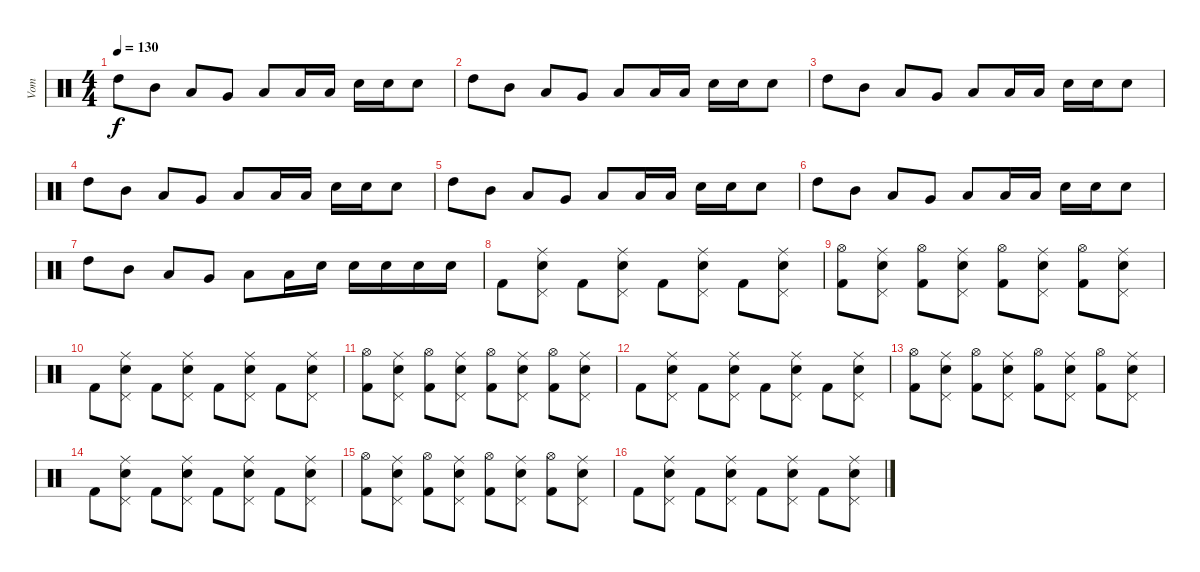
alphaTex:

\track ("Vom" "Vom") {instrument percussion}
\staff {score}
\articulation defaults
\ts (4 4)
\tempo 130
\clef neutral
\ks c "High Tom (hit)".8{dy f} "Mid Tom (hit)".8 "Low Tom (hit)".8 "Very Low Tom (hit)".8 "Low Floor Tom (hit)".8 "Low Floor Tom (hit)".16 "Low Floor Tom (hit)".16 "Snare (hit) 2".16 "Snare (hit) 2".16 "Snare (hit) 2".8
|
"High Tom (hit)".8 "Mid Tom (hit)".8 "Low Tom (hit)".8 "Very Low Tom (hit)".8 "Low Floor Tom (hit)".8 "Low Floor Tom (hit)".16 "Low Floor Tom (hit)".16 "Snare (hit) 2".16 "Snare (hit) 2".16 "Snare (hit) 2".8 |
"High Tom (hit)".8 "Mid Tom (hit)".8 "Low Tom (hit)".8 "Very Low Tom (hit)".8 "Low Floor Tom (hit)".8 "Low Floor Tom (hit)".16 "Low Floor Tom (hit)".16 "Snare (hit) 2".16 "Snare (hit) 2".16 "Snare (hit) 2".8 |
"High Tom (hit)".8 "Mid Tom (hit)".8 "Low Tom (hit)".8 "Very Low Tom (hit)".8 "Low Floor Tom (hit)".8 "Low Floor Tom (hit)".16 "Low Floor Tom (hit)".16 "Snare (hit) 2".16 "Snare (hit) 2".16 "Snare (hit) 2".8 |
"High Tom (hit)".8 "Mid Tom (hit)".8 "Low Tom (hit)".8 "Very Low Tom (hit)".8 "Low Floor Tom (hit)".8 "Low Floor Tom (hit)".16 "Low Floor Tom (hit)".16 "Snare (hit) 2".16 "Snare (hit) 2".16 "Snare (hit) 2".8 |
"High Tom (hit)".8 "Mid Tom (hit)".8 "Low Tom (hit)".8 "Very Low Tom (hit)".8 "Low Floor Tom (hit)".8 "Low Floor Tom (hit)".16 "Low Floor Tom (hit)".16 "Snare (hit) 2".16 "Snare (hit) 2".16 "Snare (hit) 2".8 |
"High Tom (hit)".8 "Mid Tom (hit)".8 "Low Tom (hit)".8 "Very Low Tom (hit)".8 "Low Floor Tom (hit)".8 "Low Floor Tom (hit)".16 "Snare (hit) 2".16 "Snare (hit) 2".16 "Snare (hit) 2".16 "Snare (hit) 2".16 "Snare (hit) 2".16 |
"Kick (hit) 2".8 ("Snare (hit) 2" "Pedal Hi-Hat (hit)" "Ride (middle)").8 "Kick (hit) 2".8 ("Snare (hit) 2" "Pedal Hi-Hat (hit)" "Ride (middle)").8 "Kick (hit) 2".8 ("Snare (hit) 2" "Pedal Hi-Hat (hit)" "Ride (middle)").8 "Kick (hit) 2".8 ("Snare (hit) 2" "Pedal Hi-Hat (hit)" "Ride (middle)").8 |
("Kick (hit) 2" "Hi-Hat (open)").8 ("Snare (hit) 2" "Pedal Hi-Hat (hit)" "Ride (middle)").8 ("Kick (hit) 2" "Hi-Hat (open)").8 ("Snare (hit) 2" "Pedal Hi-Hat (hit)" "Ride (middle)").8 ("Kick (hit) 2" "Hi-Hat (open)").8 ("Snare (hit) 2" "Pedal Hi-Hat (hit)" "Ride (middle)").8 ("Kick (hit) 2" "Hi-Hat (open)").8 ("Snare (hit) 2" "Pedal Hi-Hat (hit)" "Ride (middle)").8 |
"Kick (hit) 2".8 ("Snare (hit) 2" "Pedal Hi-Hat (hit)" "Ride (middle)").8 "Kick (hit) 2".8 ("Snare (hit) 2" "Pedal Hi-Hat (hit)" "Ride (middle)").8 "Kick (hit) 2".8 ("Snare (hit) 2" "Pedal Hi-Hat (hit)" "Ride (middle)").8 "Kick (hit) 2".8 ("Snare (hit) 2" "Pedal Hi-Hat (hit)" "Ride (middle)").8 |
("Kick (hit) 2" "Hi-Hat (open)").8 ("Snare (hit) 2" "Pedal Hi-Hat (hit)" "Ride (middle)").8 ("Kick (hit) 2" "Hi-Hat (open)").8 ("Snare (hit) 2" "Pedal Hi-Hat (hit)" "Ride (middle)").8 ("Kick (hit) 2" "Hi-Hat (open)").8 ("Snare (hit) 2" "Pedal Hi-Hat (hit)" "Ride (middle)").8 ("Kick (hit) 2" "Hi-Hat (open)").8 ("Snare (hit) 2" "Pedal Hi-Hat (hit)" "Ride (middle)").8 |
"Kick (hit) 2".8 ("Snare (hit) 2" "Pedal Hi-Hat (hit)" "Ride (middle)").8 "Kick (hit) 2".8 ("Snare (hit) 2" "Pedal Hi-Hat (hit)" "Ride (middle)").8 "Kick (hit) 2".8 ("Snare (hit) 2" "Pedal Hi-Hat (hit)" "Ride (middle)").8 "Kick (hit) 2".8 ("Snare (hit) 2" "Pedal Hi-Hat (hit)" "Ride (middle)").8 |
("Kick (hit) 2" "Hi-Hat (open)").8 ("Snare (hit) 2" "Pedal Hi-Hat (hit)" "Ride (middle)").8 ("Kick (hit) 2" "Hi-Hat (open)").8 ("Snare (hit) 2" "Pedal Hi-Hat (hit)" "Ride (middle)").8 ("Kick (hit) 2" "Hi-Hat (open)").8 ("Snare (hit) 2" "Pedal Hi-Hat (hit)" "Ride (middle)").8 ("Kick (hit) 2" "Hi-Hat (open)").8 ("Snare (hit) 2" "Pedal Hi-Hat (hit)" "Ride (middle)").8 |
"Kick (hit) 2".8 ("Snare (hit) 2" "Pedal Hi-Hat (hit)" "Ride (middle)").8 "Kick (hit) 2".8 ("Snare (hit) 2" "Pedal Hi-Hat (hit)" "Ride (middle)").8 "Kick (hit) 2".8 ("Snare (hit) 2" "Pedal Hi-Hat (hit)" "Ride (middle)").8 "Kick (hit) 2".8 ("Snare (hit) 2" "Pedal Hi-Hat (hit)" "Ride (middle)").8 |
("Kick (hit) 2" "Hi-Hat (open)").8 ("Snare (hit) 2" "Pedal Hi-Hat (hit)" "Ride (middle)").8 ("Kick (hit) 2" "Hi-Hat (open)").8 ("Snare (hit) 2" "Pedal Hi-Hat (hit)" "Ride (middle)").8 ("Kick (hit) 2" "Hi-Hat (open)").8 ("Snare (hit) 2" "Pedal Hi-Hat (hit)" "Ride (middle)").8 ("Kick (hit) 2" "Hi-Hat (open)").8 ("Snare (hit) 2" "Pedal Hi-Hat (hit)" "Ride (middle)").8 |
"Kick (hit) 2".8 ("Snare (hit) 2" "Pedal Hi-Hat (hit)" "Ride (middle)").8 "Kick (hit) 2".8 ("Snare (hit) 2" "Pedal Hi-Hat (hit)" "Ride (middle)").8 "Kick (hit) 2".8 ("Snare (hit) 2" "Pedal Hi-Hat (hit)" "Ride (middle)").8 "Kick (hit) 2".8 ("Snare (hit) 2" "Pedal Hi-Hat (hit)" "Ride (middle)").8
